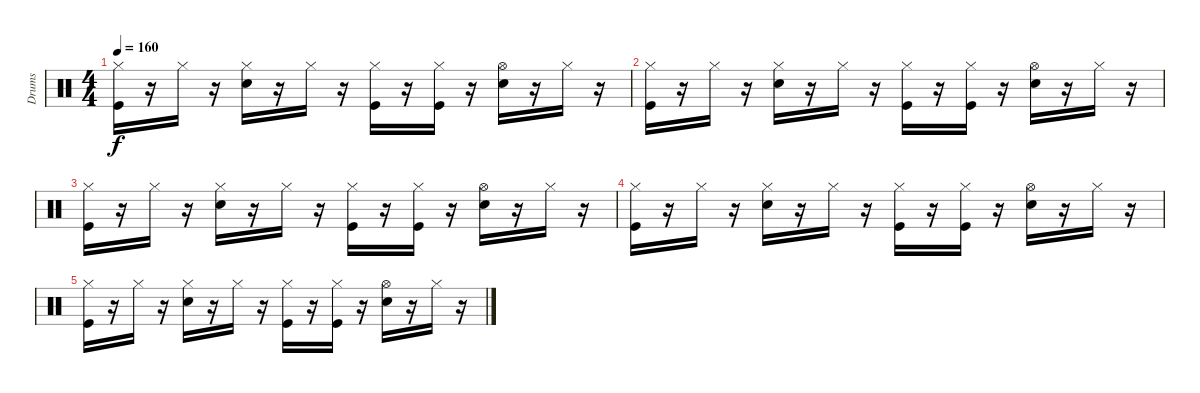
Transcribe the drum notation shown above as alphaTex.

\track ("Drums" "Drums") {instrument percussion}
\staff {score}
\articulation defaults
\ts (4 4)
\tempo 160
\clef neutral
\ks c
("Hi-Hat (closed)" "Kick (hit)").16{dy f volume 9} r.16 "Hi-Hat (closed)".16 r.16 ("Hi-Hat (closed)" "Snare (hit) 2").16 r.16 "Hi-Hat (closed)".16 r.16 ("Hi-Hat (closed)" "Kick (hit)").16 r.16 ("Kick (hit)" "Hi-Hat (closed)").16 r.16 ("Hi-Hat (open)" "Snare (hit) 2").16 r.16 "Hi-Hat (closed)".16 r.16 |
("Hi-Hat (closed)" "Kick (hit)").16{volume 4} r.16 "Hi-Hat (closed)".16 r.16 ("Hi-Hat (closed)" "Snare (hit) 2").16 r.16 "Hi-Hat (closed)".16 r.16 ("Hi-Hat (closed)" "Kick (hit)").16 r.16 ("Kick (hit)" "Hi-Hat (closed)").16 r.16 ("Hi-Hat (open)" "Snare (hit) 2").16 r.16 "Hi-Hat (closed)".16 r.16 |
("Hi-Hat (closed)" "Kick (hit)").16 r.16 "Hi-Hat (closed)".16 r.16 ("Hi-Hat (closed)" "Snare (hit) 2").16 r.16 "Hi-Hat (closed)".16 r.16 ("Hi-Hat (closed)" "Kick (hit)").16 r.16 ("Kick (hit)" "Hi-Hat (closed)").16 r.16 ("Hi-Hat (open)" "Snare (hit) 2").16 r.16 "Hi-Hat (closed)".16 r.16 |
("Hi-Hat (closed)" "Kick (hit)").16{volume 1} r.16 "Hi-Hat (closed)".16 r.16 ("Hi-Hat (closed)" "Snare (hit) 2").16 r.16 "Hi-Hat (closed)".16 r.16 ("Hi-Hat (closed)" "Kick (hit)").16 r.16 ("Kick (hit)" "Hi-Hat (closed)").16 r.16 ("Hi-Hat (open)" "Snare (hit) 2").16 r.16 "Hi-Hat (closed)".16 r.16 |
("Hi-Hat (closed)" "Kick (hit)").16 r.16 "Hi-Hat (closed)".16 r.16 ("Hi-Hat (closed)" "Snare (hit) 2").16 r.16 "Hi-Hat (closed)".16 r.16 ("Hi-Hat (closed)" "Kick (hit)").16 r.16 ("Kick (hit)" "Hi-Hat (closed)").16 r.16 ("Hi-Hat (open)" "Snare (hit) 2").16 r.16 "Hi-Hat (closed)".16 r.16
